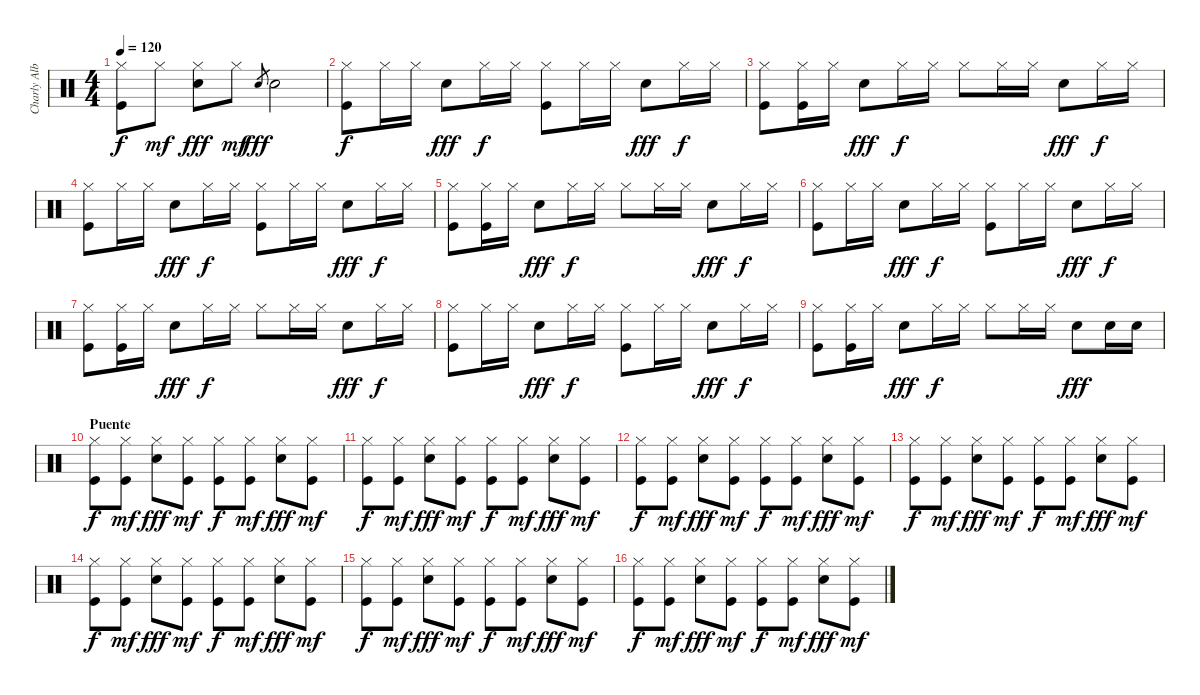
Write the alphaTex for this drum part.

\track ("Charly Alberti" "Charly Alb") {instrument percussion}
\staff {score}
\articulation defaults
\ts (4 4)
\tempo 120
\clef neutral
\ks c
("Kick (hit)" "Hi-Hat (closed)").8{dy f} "Hi-Hat (closed)".8{dy mf} ("Snare (hit) 2" "Hi-Hat (closed)").8{dy fff} "Hi-Hat (closed)".8{dy mf} "Snare (hit) 2".8{gr dy fff} "Snare (hit) 2".2 |
("Kick (hit)" "Hi-Hat (closed)").8{dy f} "Hi-Hat (closed)".16 "Hi-Hat (closed)".16 "Snare (hit) 2".8{dy fff} "Hi-Hat (closed)".16{dy f} "Hi-Hat (closed)".16 ("Kick (hit)" "Hi-Hat (closed)").8 "Hi-Hat (closed)".16 "Hi-Hat (closed)".16 "Snare (hit) 2".8{dy fff} "Hi-Hat (closed)".16{dy f} "Hi-Hat (closed)".16 |
("Kick (hit)" "Hi-Hat (closed)").8 ("Kick (hit)" "Hi-Hat (closed)").16 "Hi-Hat (closed)".16 "Snare (hit) 2".8{dy fff} "Hi-Hat (closed)".16{dy f} "Hi-Hat (closed)".16 "Hi-Hat (closed)".8 "Hi-Hat (closed)".16 "Hi-Hat (closed)".16 "Snare (hit) 2".8{dy fff} "Hi-Hat (closed)".16{dy f} "Hi-Hat (closed)".16 |
("Kick (hit)" "Hi-Hat (closed)").8 "Hi-Hat (closed)".16 "Hi-Hat (closed)".16 "Snare (hit) 2".8{dy fff} "Hi-Hat (closed)".16{dy f} "Hi-Hat (closed)".16 ("Kick (hit)" "Hi-Hat (closed)").8 "Hi-Hat (closed)".16 "Hi-Hat (closed)".16 "Snare (hit) 2".8{dy fff} "Hi-Hat (closed)".16{dy f} "Hi-Hat (closed)".16 |
("Kick (hit)" "Hi-Hat (closed)").8 ("Kick (hit)" "Hi-Hat (closed)").16 "Hi-Hat (closed)".16 "Snare (hit) 2".8{dy fff} "Hi-Hat (closed)".16{dy f} "Hi-Hat (closed)".16 "Hi-Hat (closed)".8 "Hi-Hat (closed)".16 "Hi-Hat (closed)".16 "Snare (hit) 2".8{dy fff} "Hi-Hat (closed)".16{dy f} "Hi-Hat (closed)".16 |
("Kick (hit)" "Hi-Hat (closed)").8 "Hi-Hat (closed)".16 "Hi-Hat (closed)".16 "Snare (hit) 2".8{dy fff} "Hi-Hat (closed)".16{dy f} "Hi-Hat (closed)".16 ("Kick (hit)" "Hi-Hat (closed)").8 "Hi-Hat (closed)".16 "Hi-Hat (closed)".16 "Snare (hit) 2".8{dy fff} "Hi-Hat (closed)".16{dy f} "Hi-Hat (closed)".16 |
("Kick (hit)" "Hi-Hat (closed)").8 ("Kick (hit)" "Hi-Hat (closed)").16 "Hi-Hat (closed)".16 "Snare (hit) 2".8{dy fff} "Hi-Hat (closed)".16{dy f} "Hi-Hat (closed)".16 "Hi-Hat (closed)".8 "Hi-Hat (closed)".16 "Hi-Hat (closed)".16 "Snare (hit) 2".8{dy fff} "Hi-Hat (closed)".16{dy f} "Hi-Hat (closed)".16 |
("Kick (hit)" "Hi-Hat (closed)").8 "Hi-Hat (closed)".16 "Hi-Hat (closed)".16 "Snare (hit) 2".8{dy fff} "Hi-Hat (closed)".16{dy f} "Hi-Hat (closed)".16 ("Kick (hit)" "Hi-Hat (closed)").8 "Hi-Hat (closed)".16 "Hi-Hat (closed)".16 "Snare (hit) 2".8{dy fff} "Hi-Hat (closed)".16{dy f} "Hi-Hat (closed)".16 |
("Kick (hit)" "Hi-Hat (closed)").8 ("Kick (hit)" "Hi-Hat (closed)").16 "Hi-Hat (closed)".16 "Snare (hit) 2".8{dy fff} "Hi-Hat (closed)".16{dy f} "Hi-Hat (closed)".16 "Hi-Hat (closed)".8 "Hi-Hat (closed)".16 "Hi-Hat (closed)".16 "Snare (hit) 2".8{dy fff} "Snare (hit) 2".16 "Snare (hit) 2".16 |
\section ("" "Puente")
("Kick (hit)" "Hi-Hat (closed)").8{dy f} ("Kick (hit)" "Hi-Hat (closed)").8{dy mf} ("Snare (hit) 2" "Hi-Hat (closed)").8{dy fff} ("Kick (hit)" "Hi-Hat (closed)").8{dy mf} ("Kick (hit)" "Hi-Hat (closed)").8{dy f} ("Kick (hit)" "Hi-Hat (closed)").8{dy mf} ("Snare (hit) 2" "Hi-Hat (closed)").8{dy fff} ("Kick (hit)" "Hi-Hat (closed)").8{dy mf} |
("Kick (hit)" "Hi-Hat (closed)").8{dy f} ("Kick (hit)" "Hi-Hat (closed)").8{dy mf} ("Snare (hit) 2" "Hi-Hat (closed)").8{dy fff} ("Kick (hit)" "Hi-Hat (closed)").8{dy mf} ("Kick (hit)" "Hi-Hat (closed)").8{dy f} ("Kick (hit)" "Hi-Hat (closed)").8{dy mf} ("Snare (hit) 2" "Hi-Hat (closed)").8{dy fff} ("Kick (hit)" "Hi-Hat (closed)").8{dy mf} |
("Kick (hit)" "Hi-Hat (closed)").8{dy f} ("Kick (hit)" "Hi-Hat (closed)").8{dy mf} ("Snare (hit) 2" "Hi-Hat (closed)").8{dy fff} ("Kick (hit)" "Hi-Hat (closed)").8{dy mf} ("Kick (hit)" "Hi-Hat (closed)").8{dy f} ("Kick (hit)" "Hi-Hat (closed)").8{dy mf} ("Snare (hit) 2" "Hi-Hat (closed)").8{dy fff} ("Kick (hit)" "Hi-Hat (closed)").8{dy mf} |
("Kick (hit)" "Hi-Hat (closed)").8{dy f} ("Kick (hit)" "Hi-Hat (closed)").8{dy mf} ("Snare (hit) 2" "Hi-Hat (closed)").8{dy fff} ("Kick (hit)" "Hi-Hat (closed)").8{dy mf} ("Kick (hit)" "Hi-Hat (closed)").8{dy f} ("Kick (hit)" "Hi-Hat (closed)").8{dy mf} ("Snare (hit) 2" "Hi-Hat (closed)").8{dy fff} ("Kick (hit)" "Hi-Hat (closed)").8{dy mf} |
("Kick (hit)" "Hi-Hat (closed)").8{dy f} ("Kick (hit)" "Hi-Hat (closed)").8{dy mf} ("Snare (hit) 2" "Hi-Hat (closed)").8{dy fff} ("Kick (hit)" "Hi-Hat (closed)").8{dy mf} ("Kick (hit)" "Hi-Hat (closed)").8{dy f} ("Kick (hit)" "Hi-Hat (closed)").8{dy mf} ("Snare (hit) 2" "Hi-Hat (closed)").8{dy fff} ("Kick (hit)" "Hi-Hat (closed)").8{dy mf} |
("Kick (hit)" "Hi-Hat (closed)").8{dy f} ("Kick (hit)" "Hi-Hat (closed)").8{dy mf} ("Snare (hit) 2" "Hi-Hat (closed)").8{dy fff} ("Kick (hit)" "Hi-Hat (closed)").8{dy mf} ("Kick (hit)" "Hi-Hat (closed)").8{dy f} ("Kick (hit)" "Hi-Hat (closed)").8{dy mf} ("Snare (hit) 2" "Hi-Hat (closed)").8{dy fff} ("Kick (hit)" "Hi-Hat (closed)").8{dy mf} |
("Kick (hit)" "Hi-Hat (closed)").8{dy f} ("Kick (hit)" "Hi-Hat (closed)").8{dy mf} ("Snare (hit) 2" "Hi-Hat (closed)").8{dy fff} ("Kick (hit)" "Hi-Hat (closed)").8{dy mf} ("Kick (hit)" "Hi-Hat (closed)").8{dy f} ("Kick (hit)" "Hi-Hat (closed)").8{dy mf} ("Snare (hit) 2" "Hi-Hat (closed)").8{dy fff} ("Kick (hit)" "Hi-Hat (closed)").8{dy mf}
